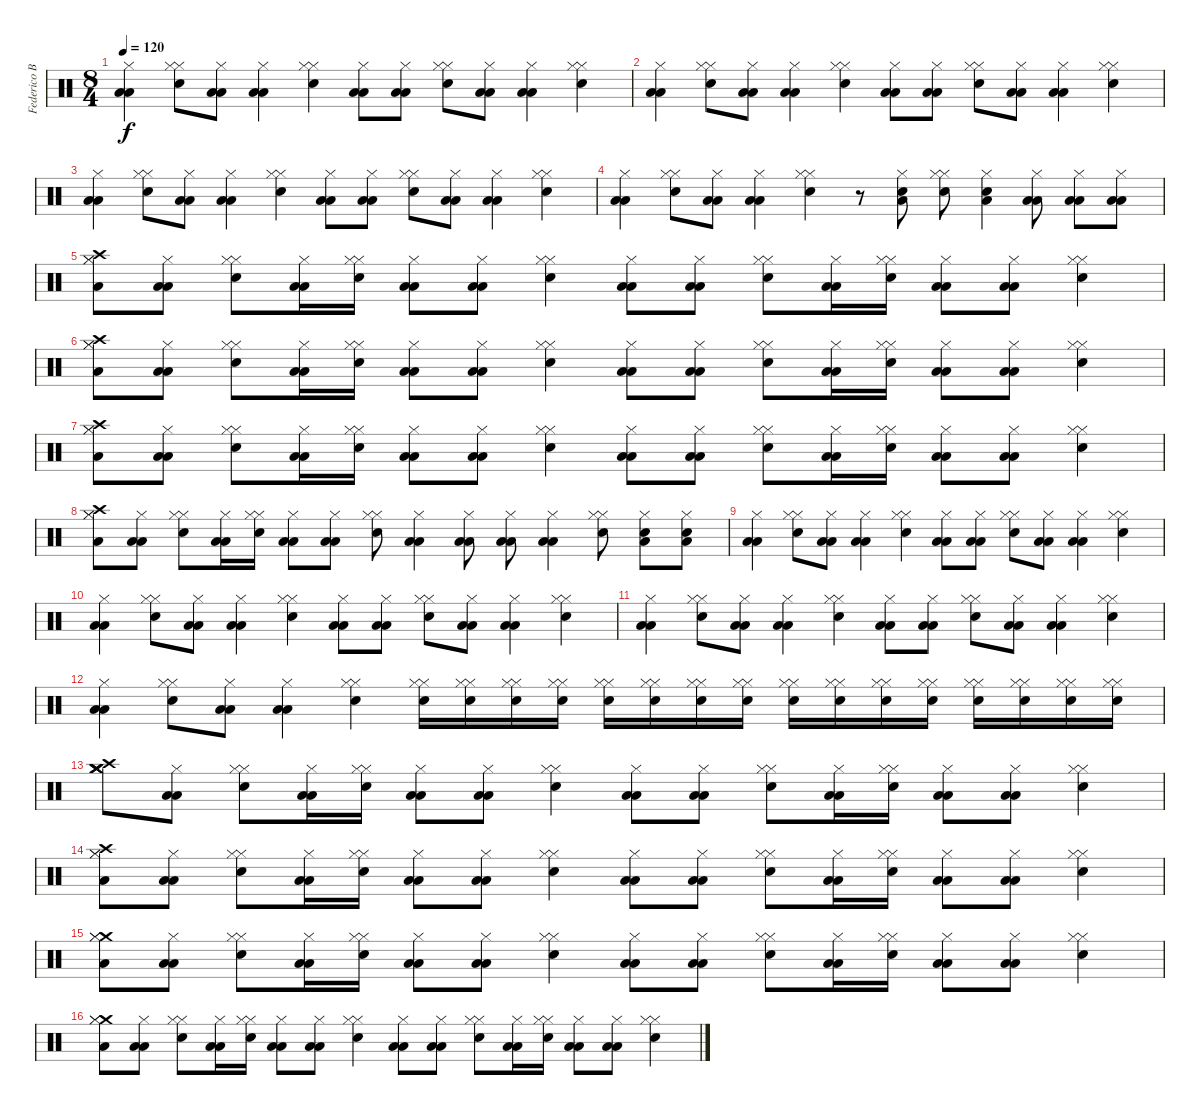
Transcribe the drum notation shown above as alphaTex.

\track ("Federico Bogliaccino - Drums" "Federico B") {instrument percussion}
\staff {score}
\articulation defaults
\ts (8 4)
\tempo 120
\clef neutral
\ks c
("Hi-Hat (closed)" "Low Floor Tom (hit)" "Low Floor Tom (hit)").4{dy f} ("Hi-Hat (closed)" "Hi-Hat (closed)" "Snare (hit) 2").8 ("Hi-Hat (closed)" "Low Floor Tom (hit)" "Low Floor Tom (hit)").8 ("Hi-Hat (closed)" "Low Floor Tom (hit)" "Low Floor Tom (hit)").4 ("Hi-Hat (closed)" "Hi-Hat (closed)" "Snare (hit) 2").4 ("Hi-Hat (closed)" "Low Floor Tom (hit)" "Low Floor Tom (hit)").8 ("Hi-Hat (closed)" "Low Floor Tom (hit)" "Low Floor Tom (hit)").8 ("Hi-Hat (closed)" "Hi-Hat (closed)" "Snare (hit) 2").8 ("Hi-Hat (closed)" "Low Floor Tom (hit)" "Low Floor Tom (hit)").8 ("Hi-Hat (closed)" "Low Floor Tom (hit)" "Low Floor Tom (hit)").4 ("Hi-Hat (closed)" "Hi-Hat (closed)" "Snare (hit) 2").4 |
("Hi-Hat (closed)" "Low Floor Tom (hit)" "Low Floor Tom (hit)").4 ("Hi-Hat (closed)" "Hi-Hat (closed)" "Snare (hit) 2").8 ("Hi-Hat (closed)" "Low Floor Tom (hit)" "Low Floor Tom (hit)").8 ("Hi-Hat (closed)" "Low Floor Tom (hit)" "Low Floor Tom (hit)").4 ("Hi-Hat (closed)" "Hi-Hat (closed)" "Snare (hit) 2").4 ("Hi-Hat (closed)" "Low Floor Tom (hit)" "Low Floor Tom (hit)").8 ("Hi-Hat (closed)" "Low Floor Tom (hit)" "Low Floor Tom (hit)").8 ("Hi-Hat (closed)" "Hi-Hat (closed)" "Snare (hit) 2").8 ("Hi-Hat (closed)" "Low Floor Tom (hit)" "Low Floor Tom (hit)").8 ("Hi-Hat (closed)" "Low Floor Tom (hit)" "Low Floor Tom (hit)").4 ("Hi-Hat (closed)" "Hi-Hat (closed)" "Snare (hit) 2").4 |
("Hi-Hat (closed)" "Low Floor Tom (hit)" "Low Floor Tom (hit)").4 ("Hi-Hat (closed)" "Hi-Hat (closed)" "Snare (hit) 2").8 ("Hi-Hat (closed)" "Low Floor Tom (hit)" "Low Floor Tom (hit)").8 ("Hi-Hat (closed)" "Low Floor Tom (hit)" "Low Floor Tom (hit)").4 ("Hi-Hat (closed)" "Hi-Hat (closed)" "Snare (hit) 2").4 ("Hi-Hat (closed)" "Low Floor Tom (hit)" "Low Floor Tom (hit)").8 ("Hi-Hat (closed)" "Low Floor Tom (hit)" "Low Floor Tom (hit)").8 ("Hi-Hat (closed)" "Hi-Hat (closed)" "Snare (hit) 2").8 ("Hi-Hat (closed)" "Low Floor Tom (hit)" "Low Floor Tom (hit)").8 ("Hi-Hat (closed)" "Low Floor Tom (hit)" "Low Floor Tom (hit)").4 ("Hi-Hat (closed)" "Hi-Hat (closed)" "Snare (hit) 2").4 |
("Hi-Hat (closed)" "Low Floor Tom (hit)" "Low Floor Tom (hit)").4 ("Hi-Hat (closed)" "Hi-Hat (closed)" "Snare (hit) 2").8 ("Hi-Hat (closed)" "Low Floor Tom (hit)" "Low Floor Tom (hit)").8 ("Hi-Hat (closed)" "Low Floor Tom (hit)" "Low Floor Tom (hit)").4 ("Hi-Hat (closed)" "Hi-Hat (closed)" "Snare (hit) 2").4 r.8 ("Hi-Hat (closed)" "Low Floor Tom (hit)" "Snare (hit) 2").8 ("Hi-Hat (closed)" "Hi-Hat (closed)" "Snare (hit) 2").8 ("Hi-Hat (closed)" "Low Floor Tom (hit)" "Snare (hit) 2").4 ("Hi-Hat (closed)" "Low Tom (hit)" "Low Floor Tom (hit)").8 ("Hi-Hat (closed)" "Low Tom (hit)" "Low Floor Tom (hit)").8 ("Hi-Hat (closed)" "Low Tom (hit)" "Low Floor Tom (hit)").8 |
("Crash high (hit)" "Hi-Hat (closed)" "Hi-Hat (closed)" "Low Floor Tom (hit)").8 ("Hi-Hat (closed)" "Low Floor Tom (hit)" "Low Floor Tom (hit)").8 ("Hi-Hat (closed)" "Hi-Hat (closed)" "Snare (hit) 2").8 ("Hi-Hat (closed)" "Low Floor Tom (hit)" "Low Floor Tom (hit)").16 ("Hi-Hat (closed)" "Hi-Hat (closed)" "Snare (hit) 2").16 ("Hi-Hat (closed)" "Low Floor Tom (hit)" "Low Floor Tom (hit)").8 ("Hi-Hat (closed)" "Low Floor Tom (hit)" "Low Floor Tom (hit)").8 ("Hi-Hat (closed)" "Hi-Hat (closed)" "Snare (hit) 2").4 ("Hi-Hat (closed)" "Low Floor Tom (hit)" "Low Floor Tom (hit)").8 ("Hi-Hat (closed)" "Low Floor Tom (hit)" "Low Floor Tom (hit)").8 ("Hi-Hat (closed)" "Hi-Hat (closed)" "Snare (hit) 2").8 ("Hi-Hat (closed)" "Low Floor Tom (hit)" "Low Floor Tom (hit)").16 ("Hi-Hat (closed)" "Hi-Hat (closed)" "Snare (hit) 2").16 ("Hi-Hat (closed)" "Low Floor Tom (hit)" "Low Floor Tom (hit)").8 ("Hi-Hat (closed)" "Low Floor Tom (hit)" "Low Floor Tom (hit)").8 ("Hi-Hat (closed)" "Hi-Hat (closed)" "Snare (hit) 2").4 |
("Crash high (hit)" "Hi-Hat (closed)" "Hi-Hat (closed)" "Low Floor Tom (hit)").8 ("Hi-Hat (closed)" "Low Floor Tom (hit)" "Low Floor Tom (hit)").8 ("Hi-Hat (closed)" "Hi-Hat (closed)" "Snare (hit) 2").8 ("Hi-Hat (closed)" "Low Floor Tom (hit)" "Low Floor Tom (hit)").16 ("Hi-Hat (closed)" "Hi-Hat (closed)" "Snare (hit) 2").16 ("Hi-Hat (closed)" "Low Floor Tom (hit)" "Low Floor Tom (hit)").8 ("Hi-Hat (closed)" "Low Floor Tom (hit)" "Low Floor Tom (hit)").8 ("Hi-Hat (closed)" "Hi-Hat (closed)" "Snare (hit) 2").4 ("Hi-Hat (closed)" "Low Floor Tom (hit)" "Low Floor Tom (hit)").8 ("Hi-Hat (closed)" "Low Floor Tom (hit)" "Low Floor Tom (hit)").8 ("Hi-Hat (closed)" "Hi-Hat (closed)" "Snare (hit) 2").8 ("Hi-Hat (closed)" "Low Floor Tom (hit)" "Low Floor Tom (hit)").16 ("Hi-Hat (closed)" "Hi-Hat (closed)" "Snare (hit) 2").16 ("Hi-Hat (closed)" "Low Floor Tom (hit)" "Low Floor Tom (hit)").8 ("Hi-Hat (closed)" "Low Floor Tom (hit)" "Low Floor Tom (hit)").8 ("Hi-Hat (closed)" "Hi-Hat (closed)" "Snare (hit) 2").4 |
("Crash high (hit)" "Hi-Hat (closed)" "Hi-Hat (closed)" "Low Floor Tom (hit)").8 ("Hi-Hat (closed)" "Low Floor Tom (hit)" "Low Floor Tom (hit)").8 ("Hi-Hat (closed)" "Hi-Hat (closed)" "Snare (hit) 2").8 ("Hi-Hat (closed)" "Low Floor Tom (hit)" "Low Floor Tom (hit)").16 ("Hi-Hat (closed)" "Hi-Hat (closed)" "Snare (hit) 2").16 ("Hi-Hat (closed)" "Low Floor Tom (hit)" "Low Floor Tom (hit)").8 ("Hi-Hat (closed)" "Low Floor Tom (hit)" "Low Floor Tom (hit)").8 ("Hi-Hat (closed)" "Hi-Hat (closed)" "Snare (hit) 2").4 ("Hi-Hat (closed)" "Low Floor Tom (hit)" "Low Floor Tom (hit)").8 ("Hi-Hat (closed)" "Low Floor Tom (hit)" "Low Floor Tom (hit)").8 ("Hi-Hat (closed)" "Hi-Hat (closed)" "Snare (hit) 2").8 ("Hi-Hat (closed)" "Low Floor Tom (hit)" "Low Floor Tom (hit)").16 ("Hi-Hat (closed)" "Hi-Hat (closed)" "Snare (hit) 2").16 ("Hi-Hat (closed)" "Low Floor Tom (hit)" "Low Floor Tom (hit)").8 ("Hi-Hat (closed)" "Low Floor Tom (hit)" "Low Floor Tom (hit)").8 ("Hi-Hat (closed)" "Hi-Hat (closed)" "Snare (hit) 2").4 |
("Crash high (hit)" "Hi-Hat (closed)" "Hi-Hat (closed)" "Low Floor Tom (hit)").8 ("Hi-Hat (closed)" "Low Floor Tom (hit)" "Low Floor Tom (hit)").8 ("Hi-Hat (closed)" "Hi-Hat (closed)" "Snare (hit) 2").8 ("Hi-Hat (closed)" "Low Floor Tom (hit)" "Low Floor Tom (hit)").16 ("Hi-Hat (closed)" "Hi-Hat (closed)" "Snare (hit) 2").16 ("Hi-Hat (closed)" "Low Floor Tom (hit)" "Low Floor Tom (hit)").8 ("Hi-Hat (closed)" "Low Floor Tom (hit)" "Low Floor Tom (hit)").8 ("Hi-Hat (closed)" "Hi-Hat (closed)" "Snare (hit) 2").8 ("Hi-Hat (closed)" "Low Floor Tom (hit)" "Low Floor Tom (hit)").4 ("Hi-Hat (closed)" "Low Tom (hit)" "Low Floor Tom (hit)").8 ("Hi-Hat (closed)" "Low Tom (hit)" "Low Floor Tom (hit)").8 ("Hi-Hat (closed)" "Low Tom (hit)" "Low Floor Tom (hit)").4 ("Hi-Hat (closed)" "Hi-Hat (closed)" "Snare (hit) 2").8 ("Hi-Hat (closed)" "Low Floor Tom (hit)" "Snare (hit) 2").8 ("Hi-Hat (closed)" "Low Floor Tom (hit)" "Snare (hit) 2").8 |
("Hi-Hat (closed)" "Low Floor Tom (hit)" "Low Floor Tom (hit)").4 ("Hi-Hat (closed)" "Hi-Hat (closed)" "Snare (hit) 2").8 ("Hi-Hat (closed)" "Low Floor Tom (hit)" "Low Floor Tom (hit)").8 ("Hi-Hat (closed)" "Low Floor Tom (hit)" "Low Floor Tom (hit)").4 ("Hi-Hat (closed)" "Hi-Hat (closed)" "Snare (hit) 2").4 ("Hi-Hat (closed)" "Low Floor Tom (hit)" "Low Floor Tom (hit)").8 ("Hi-Hat (closed)" "Low Floor Tom (hit)" "Low Floor Tom (hit)").8 ("Hi-Hat (closed)" "Hi-Hat (closed)" "Snare (hit) 2").8 ("Hi-Hat (closed)" "Low Floor Tom (hit)" "Low Floor Tom (hit)").8 ("Hi-Hat (closed)" "Low Floor Tom (hit)" "Low Floor Tom (hit)").4 ("Hi-Hat (closed)" "Hi-Hat (closed)" "Snare (hit) 2").4 |
("Hi-Hat (closed)" "Low Floor Tom (hit)" "Low Floor Tom (hit)").4 ("Hi-Hat (closed)" "Hi-Hat (closed)" "Snare (hit) 2").8 ("Hi-Hat (closed)" "Low Floor Tom (hit)" "Low Floor Tom (hit)").8 ("Hi-Hat (closed)" "Low Floor Tom (hit)" "Low Floor Tom (hit)").4 ("Hi-Hat (closed)" "Hi-Hat (closed)" "Snare (hit) 2").4 ("Hi-Hat (closed)" "Low Floor Tom (hit)" "Low Floor Tom (hit)").8 ("Hi-Hat (closed)" "Low Floor Tom (hit)" "Low Floor Tom (hit)").8 ("Hi-Hat (closed)" "Hi-Hat (closed)" "Snare (hit) 2").8 ("Hi-Hat (closed)" "Low Floor Tom (hit)" "Low Floor Tom (hit)").8 ("Hi-Hat (closed)" "Low Floor Tom (hit)" "Low Floor Tom (hit)").4 ("Hi-Hat (closed)" "Hi-Hat (closed)" "Snare (hit) 2").4 |
("Hi-Hat (closed)" "Low Floor Tom (hit)" "Low Floor Tom (hit)").4 ("Hi-Hat (closed)" "Hi-Hat (closed)" "Snare (hit) 2").8 ("Hi-Hat (closed)" "Low Floor Tom (hit)" "Low Floor Tom (hit)").8 ("Hi-Hat (closed)" "Low Floor Tom (hit)" "Low Floor Tom (hit)").4 ("Hi-Hat (closed)" "Hi-Hat (closed)" "Snare (hit) 2").4 ("Hi-Hat (closed)" "Low Floor Tom (hit)" "Low Floor Tom (hit)").8 ("Hi-Hat (closed)" "Low Floor Tom (hit)" "Low Floor Tom (hit)").8 ("Hi-Hat (closed)" "Hi-Hat (closed)" "Snare (hit) 2").8 ("Hi-Hat (closed)" "Low Floor Tom (hit)" "Low Floor Tom (hit)").8 ("Hi-Hat (closed)" "Low Floor Tom (hit)" "Low Floor Tom (hit)").4 ("Hi-Hat (closed)" "Hi-Hat (closed)" "Snare (hit) 2").4 |
("Hi-Hat (closed)" "Low Floor Tom (hit)" "Low Floor Tom (hit)").4 ("Hi-Hat (closed)" "Hi-Hat (closed)" "Snare (hit) 2").8 ("Hi-Hat (closed)" "Low Floor Tom (hit)" "Low Floor Tom (hit)").8 ("Hi-Hat (closed)" "Low Floor Tom (hit)" "Low Floor Tom (hit)").4 ("Hi-Hat (closed)" "Hi-Hat (closed)" "Snare (hit) 2").4 ("Hi-Hat (closed)" "Hi-Hat (closed)" "Snare (hit) 2").16 ("Hi-Hat (closed)" "Hi-Hat (closed)" "Snare (hit) 2").16 ("Hi-Hat (closed)" "Hi-Hat (closed)" "Snare (hit) 2").16 ("Hi-Hat (closed)" "Hi-Hat (closed)" "Snare (hit) 2").16 ("Hi-Hat (closed)" "Hi-Hat (closed)" "Snare (hit) 2").16 ("Hi-Hat (closed)" "Hi-Hat (closed)" "Snare (hit) 2").16 ("Hi-Hat (closed)" "Hi-Hat (closed)" "Snare (hit) 2").16 ("Hi-Hat (closed)" "Hi-Hat (closed)" "Snare (hit) 2").16 ("Hi-Hat (closed)" "Hi-Hat (closed)" "Snare (hit) 2").16 ("Hi-Hat (closed)" "Hi-Hat (closed)" "Snare (hit) 2").16 ("Hi-Hat (closed)" "Hi-Hat (closed)" "Snare (hit) 2").16 ("Hi-Hat (closed)" "Hi-Hat (closed)" "Snare (hit) 2").16 ("Hi-Hat (closed)" "Hi-Hat (closed)" "Snare (hit) 2").16 ("Hi-Hat (closed)" "Hi-Hat (closed)" "Snare (hit) 2").16 ("Hi-Hat (closed)" "Hi-Hat (closed)" "Snare (hit) 2").16 ("Hi-Hat (closed)" "Hi-Hat (closed)" "Snare (hit) 2").16 |
("Crash high (hit)" "Crash medium (hit)" "Crash medium (hit)" "Crash medium (hit)").8 ("Hi-Hat (closed)" "Low Floor Tom (hit)" "Low Floor Tom (hit)").8 ("Hi-Hat (closed)" "Hi-Hat (closed)" "Snare (hit) 2").8 ("Hi-Hat (closed)" "Low Floor Tom (hit)" "Low Floor Tom (hit)").16 ("Hi-Hat (closed)" "Hi-Hat (closed)" "Snare (hit) 2").16 ("Hi-Hat (closed)" "Low Floor Tom (hit)" "Low Floor Tom (hit)").8 ("Hi-Hat (closed)" "Low Floor Tom (hit)" "Low Floor Tom (hit)").8 ("Hi-Hat (closed)" "Hi-Hat (closed)" "Snare (hit) 2").4 ("Hi-Hat (closed)" "Low Floor Tom (hit)" "Low Floor Tom (hit)").8 ("Hi-Hat (closed)" "Low Floor Tom (hit)" "Low Floor Tom (hit)").8 ("Hi-Hat (closed)" "Hi-Hat (closed)" "Snare (hit) 2").8 ("Hi-Hat (closed)" "Low Floor Tom (hit)" "Low Floor Tom (hit)").16 ("Hi-Hat (closed)" "Hi-Hat (closed)" "Snare (hit) 2").16 ("Hi-Hat (closed)" "Low Floor Tom (hit)" "Low Floor Tom (hit)").8 ("Hi-Hat (closed)" "Low Floor Tom (hit)" "Low Floor Tom (hit)").8 ("Hi-Hat (closed)" "Hi-Hat (closed)" "Snare (hit) 2").4 |
("Crash high (hit)" "Hi-Hat (closed)" "Hi-Hat (closed)" "Low Floor Tom (hit)").8 ("Hi-Hat (closed)" "Low Floor Tom (hit)" "Low Floor Tom (hit)").8 ("Hi-Hat (closed)" "Hi-Hat (closed)" "Snare (hit) 2").8 ("Hi-Hat (closed)" "Low Floor Tom (hit)" "Low Floor Tom (hit)").16 ("Hi-Hat (closed)" "Hi-Hat (closed)" "Snare (hit) 2").16 ("Hi-Hat (closed)" "Low Floor Tom (hit)" "Low Floor Tom (hit)").8 ("Hi-Hat (closed)" "Low Floor Tom (hit)" "Low Floor Tom (hit)").8 ("Hi-Hat (closed)" "Hi-Hat (closed)" "Snare (hit) 2").4 ("Hi-Hat (closed)" "Low Floor Tom (hit)" "Low Floor Tom (hit)").8 ("Hi-Hat (closed)" "Low Floor Tom (hit)" "Low Floor Tom (hit)").8 ("Hi-Hat (closed)" "Hi-Hat (closed)" "Snare (hit) 2").8 ("Hi-Hat (closed)" "Low Floor Tom (hit)" "Low Floor Tom (hit)").16 ("Hi-Hat (closed)" "Hi-Hat (closed)" "Snare (hit) 2").16 ("Hi-Hat (closed)" "Low Floor Tom (hit)" "Low Floor Tom (hit)").8 ("Hi-Hat (closed)" "Low Floor Tom (hit)" "Low Floor Tom (hit)").8 ("Hi-Hat (closed)" "Hi-Hat (closed)" "Snare (hit) 2").4 |
("Crash medium (hit)" "Hi-Hat (closed)" "Hi-Hat (closed)" "Low Floor Tom (hit)").8 ("Hi-Hat (closed)" "Low Floor Tom (hit)" "Low Floor Tom (hit)").8 ("Hi-Hat (closed)" "Hi-Hat (closed)" "Snare (hit) 2").8 ("Hi-Hat (closed)" "Low Floor Tom (hit)" "Low Floor Tom (hit)").16 ("Hi-Hat (closed)" "Hi-Hat (closed)" "Snare (hit) 2").16 ("Hi-Hat (closed)" "Low Floor Tom (hit)" "Low Floor Tom (hit)").8 ("Hi-Hat (closed)" "Low Floor Tom (hit)" "Low Floor Tom (hit)").8 ("Hi-Hat (closed)" "Hi-Hat (closed)" "Snare (hit) 2").4 ("Hi-Hat (closed)" "Low Floor Tom (hit)" "Low Floor Tom (hit)").8 ("Hi-Hat (closed)" "Low Floor Tom (hit)" "Low Floor Tom (hit)").8 ("Hi-Hat (closed)" "Hi-Hat (closed)" "Snare (hit) 2").8 ("Hi-Hat (closed)" "Low Floor Tom (hit)" "Low Floor Tom (hit)").16 ("Hi-Hat (closed)" "Hi-Hat (closed)" "Snare (hit) 2").16 ("Hi-Hat (closed)" "Low Floor Tom (hit)" "Low Floor Tom (hit)").8 ("Hi-Hat (closed)" "Low Floor Tom (hit)" "Low Floor Tom (hit)").8 ("Hi-Hat (closed)" "Hi-Hat (closed)" "Snare (hit) 2").4 |
("Crash medium (hit)" "Hi-Hat (closed)" "Hi-Hat (closed)" "Low Floor Tom (hit)").8 ("Hi-Hat (closed)" "Low Floor Tom (hit)" "Low Floor Tom (hit)").8 ("Hi-Hat (closed)" "Hi-Hat (closed)" "Snare (hit) 2").8 ("Hi-Hat (closed)" "Low Floor Tom (hit)" "Low Floor Tom (hit)").16 ("Hi-Hat (closed)" "Hi-Hat (closed)" "Snare (hit) 2").16 ("Hi-Hat (closed)" "Low Floor Tom (hit)" "Low Floor Tom (hit)").8 ("Hi-Hat (closed)" "Low Floor Tom (hit)" "Low Floor Tom (hit)").8 ("Hi-Hat (closed)" "Hi-Hat (closed)" "Snare (hit) 2").4 ("Hi-Hat (closed)" "Low Floor Tom (hit)" "Low Floor Tom (hit)").8 ("Hi-Hat (closed)" "Low Floor Tom (hit)" "Low Floor Tom (hit)").8 ("Hi-Hat (closed)" "Hi-Hat (closed)" "Snare (hit) 2").8 ("Hi-Hat (closed)" "Low Floor Tom (hit)" "Low Floor Tom (hit)").16 ("Hi-Hat (closed)" "Hi-Hat (closed)" "Snare (hit) 2").16 ("Hi-Hat (closed)" "Low Floor Tom (hit)" "Low Floor Tom (hit)").8 ("Hi-Hat (closed)" "Low Floor Tom (hit)" "Low Floor Tom (hit)").8 ("Hi-Hat (closed)" "Hi-Hat (closed)" "Snare (hit) 2").4
